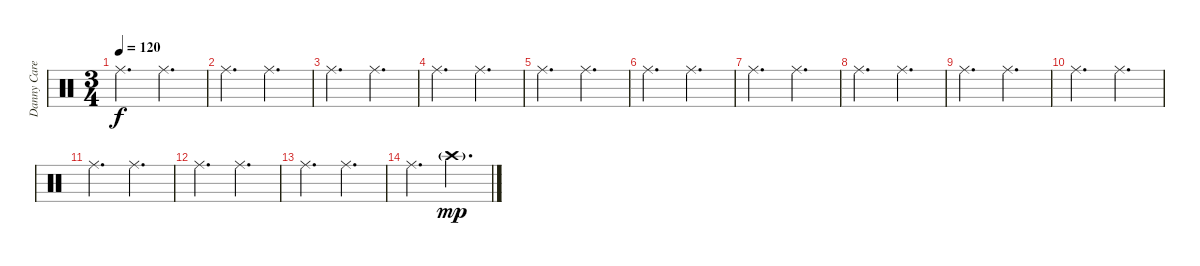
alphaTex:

\track ("Danny Carey" "Danny Care") {instrument percussion}
\staff {score}
\articulation defaults
\ts (3 4)
\tempo 120
\clef neutral
\ks c "Ride (middle)".4{d dy f} "Ride (middle)".4{d}
|
"Ride (middle)".4{d} "Ride (middle)".4{d} |
"Ride (middle)".4{d} "Ride (middle)".4{d} |
"Ride (middle)".4{d} "Ride (middle)".4{d} |
"Ride (middle)".4{d} "Ride (middle)".4{d} |
"Ride (middle)".4{d} "Ride (middle)".4{d} |
"Ride (middle)".4{d} "Ride (middle)".4{d} |
"Ride (middle)".4{d} "Ride (middle)".4{d} |
"Ride (middle)".4{d} "Ride (middle)".4{d} |
"Ride (middle)".4{d} "Ride (middle)".4{d} |
"Ride (middle)".4{d} "Ride (middle)".4{d} |
"Ride (middle)".4{d} "Ride (middle)".4{d} |
"Ride (middle)".4{d} "Ride (middle)".4{d} |
"Ride (middle)".4{d} "Crash high (hit)"{g}.4{d dy mp}
